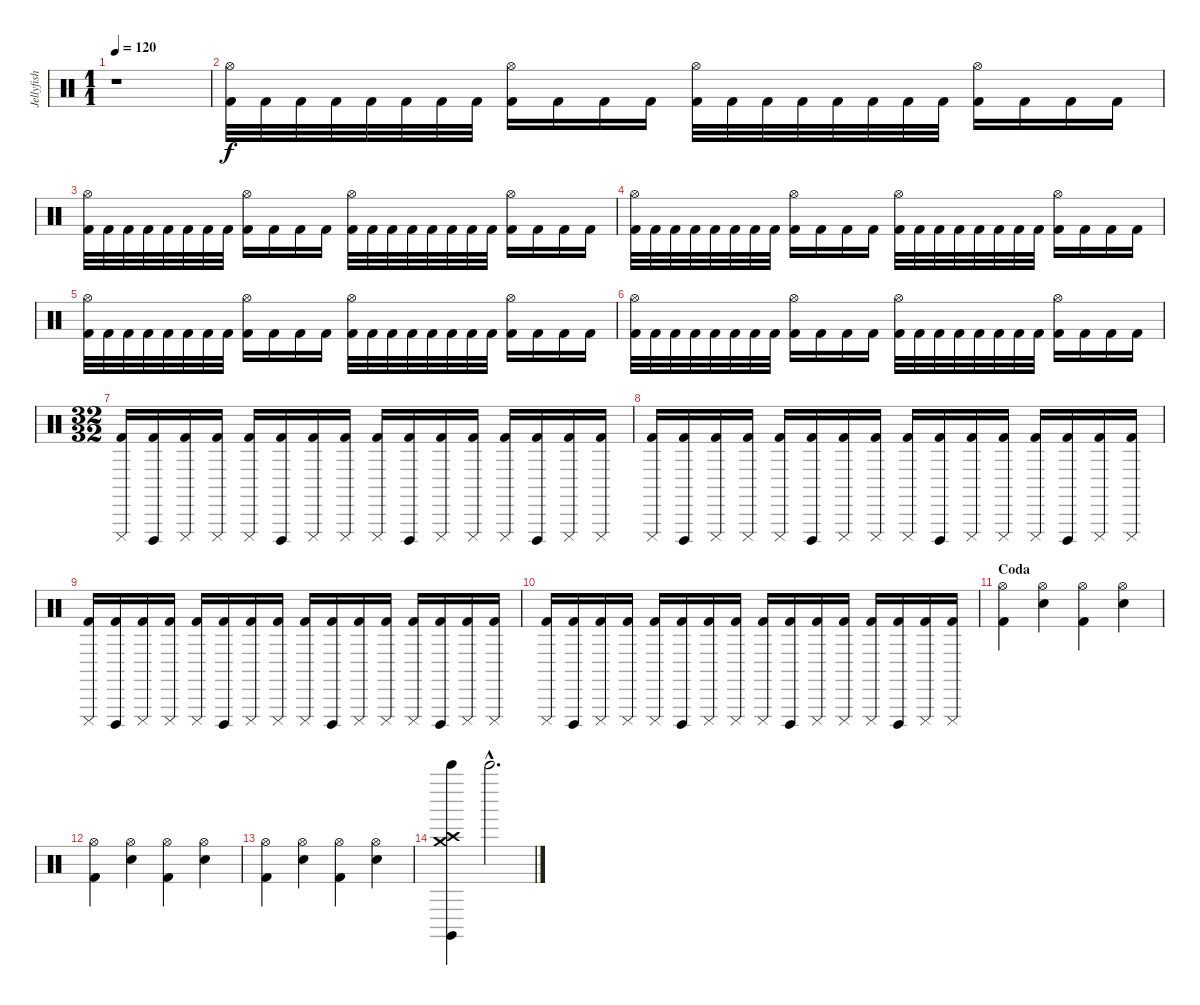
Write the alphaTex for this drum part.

\track ("Jellyfish" "Jellyfish") {instrument percussion}
\staff {score}
\articulation defaults
\ts (1 1)
\tempo 120
\clef neutral
\ks c
r.1{dy f} |
("Hi-Hat (open)" "Kick (hit) 2").32 "Kick (hit) 2".32 "Kick (hit) 2".32 "Kick (hit) 2".32 "Kick (hit) 2".32 "Kick (hit) 2".32 "Kick (hit) 2".32 "Kick (hit) 2".32 ("Hi-Hat (open)" "Kick (hit) 2").16 "Kick (hit) 2".16 "Kick (hit) 2".16 "Kick (hit) 2".16 ("Hi-Hat (open)" "Kick (hit) 2").32 "Kick (hit) 2".32 "Kick (hit) 2".32 "Kick (hit) 2".32 "Kick (hit) 2".32 "Kick (hit) 2".32 "Kick (hit) 2".32 "Kick (hit) 2".32 ("Hi-Hat (open)" "Kick (hit) 2").16 "Kick (hit) 2".16 "Kick (hit) 2".16 "Kick (hit) 2".16 |
("Hi-Hat (open)" "Kick (hit) 2").32 "Kick (hit) 2".32 "Kick (hit) 2".32 "Kick (hit) 2".32 "Kick (hit) 2".32 "Kick (hit) 2".32 "Kick (hit) 2".32 "Kick (hit) 2".32 ("Hi-Hat (open)" "Kick (hit) 2").16 "Kick (hit) 2".16 "Kick (hit) 2".16 "Kick (hit) 2".16 ("Hi-Hat (open)" "Kick (hit) 2").32 "Kick (hit) 2".32 "Kick (hit) 2".32 "Kick (hit) 2".32 "Kick (hit) 2".32 "Kick (hit) 2".32 "Kick (hit) 2".32 "Kick (hit) 2".32 ("Hi-Hat (open)" "Kick (hit) 2").16 "Kick (hit) 2".16 "Kick (hit) 2".16 "Kick (hit) 2".16 |
("Hi-Hat (open)" "Kick (hit) 2").32 "Kick (hit) 2".32 "Kick (hit) 2".32 "Kick (hit) 2".32 "Kick (hit) 2".32 "Kick (hit) 2".32 "Kick (hit) 2".32 "Kick (hit) 2".32 ("Hi-Hat (open)" "Kick (hit) 2").16 "Kick (hit) 2".16 "Kick (hit) 2".16 "Kick (hit) 2".16 ("Hi-Hat (open)" "Kick (hit) 2").32 "Kick (hit) 2".32 "Kick (hit) 2".32 "Kick (hit) 2".32 "Kick (hit) 2".32 "Kick (hit) 2".32 "Kick (hit) 2".32 "Kick (hit) 2".32 ("Hi-Hat (open)" "Kick (hit) 2").16 "Kick (hit) 2".16 "Kick (hit) 2".16 "Kick (hit) 2".16 |
("Hi-Hat (open)" "Kick (hit) 2").32 "Kick (hit) 2".32 "Kick (hit) 2".32 "Kick (hit) 2".32 "Kick (hit) 2".32 "Kick (hit) 2".32 "Kick (hit) 2".32 "Kick (hit) 2".32 ("Hi-Hat (open)" "Kick (hit) 2").16 "Kick (hit) 2".16 "Kick (hit) 2".16 "Kick (hit) 2".16 ("Hi-Hat (open)" "Kick (hit) 2").32 "Kick (hit) 2".32 "Kick (hit) 2".32 "Kick (hit) 2".32 "Kick (hit) 2".32 "Kick (hit) 2".32 "Kick (hit) 2".32 "Kick (hit) 2".32 ("Hi-Hat (open)" "Kick (hit) 2").16 "Kick (hit) 2".16 "Kick (hit) 2".16 "Kick (hit) 2".16 |
("Hi-Hat (open)" "Kick (hit) 2").32 "Kick (hit) 2".32 "Kick (hit) 2".32 "Kick (hit) 2".32 "Kick (hit) 2".32 "Kick (hit) 2".32 "Kick (hit) 2".32 "Kick (hit) 2".32 ("Hi-Hat (open)" "Kick (hit) 2").16 "Kick (hit) 2".16 "Kick (hit) 2".16 "Kick (hit) 2".16 ("Hi-Hat (open)" "Kick (hit) 2").32 "Kick (hit) 2".32 "Kick (hit) 2".32 "Kick (hit) 2".32 "Kick (hit) 2".32 "Kick (hit) 2".32 "Kick (hit) 2".32 "Kick (hit) 2".32 ("Hi-Hat (open)" "Kick (hit) 2").16 "Kick (hit) 2".16 "Kick (hit) 2".16 "Kick (hit) 2".16 |
\ts (32 32)
("Cuica (mute)" "Kick (hit) 2").16 ("Cuica (open)" "Kick (hit) 2").16 ("Cuica (mute)" "Kick (hit) 2").16 ("Cuica (mute)" "Kick (hit) 2").16 ("Cuica (mute)" "Kick (hit) 2").16 ("Cuica (open)" "Kick (hit) 2").16 ("Cuica (mute)" "Kick (hit) 2").16 ("Cuica (mute)" "Kick (hit) 2").16 ("Cuica (mute)" "Kick (hit) 2").16 ("Cuica (open)" "Kick (hit) 2").16 ("Cuica (mute)" "Kick (hit) 2").16 ("Cuica (mute)" "Kick (hit) 2").16 ("Cuica (mute)" "Kick (hit) 2").16 ("Cuica (open)" "Kick (hit) 2").16 ("Cuica (mute)" "Kick (hit) 2").16 ("Cuica (mute)"{be (custom 0 0 12 9 26 5 30 12 35 6 48 5 50 4 60 12)} "Kick (hit) 2").16 |
("Cuica (mute)" "Kick (hit) 2").16 ("Cuica (open)" "Kick (hit) 2").16 ("Cuica (mute)" "Kick (hit) 2").16 ("Cuica (mute)" "Kick (hit) 2").16 ("Cuica (mute)" "Kick (hit) 2").16 ("Cuica (open)" "Kick (hit) 2").16 ("Cuica (mute)" "Kick (hit) 2").16 ("Cuica (mute)" "Kick (hit) 2").16 ("Cuica (mute)" "Kick (hit) 2").16 ("Cuica (open)" "Kick (hit) 2").16 ("Cuica (mute)" "Kick (hit) 2").16 ("Cuica (mute)" "Kick (hit) 2").16 ("Cuica (mute)" "Kick (hit) 2").16 ("Cuica (open)" "Kick (hit) 2").16 ("Cuica (mute)" "Kick (hit) 2").16 ("Cuica (mute)"{be (custom 0 0 12 9 26 5 30 12 35 6 48 5 50 4 60 12)} "Kick (hit) 2").16 |
("Cuica (mute)" "Kick (hit) 2").16 ("Cuica (open)" "Kick (hit) 2").16 ("Cuica (mute)" "Kick (hit) 2").16 ("Cuica (mute)" "Kick (hit) 2").16 ("Cuica (mute)" "Kick (hit) 2").16 ("Cuica (open)" "Kick (hit) 2").16 ("Cuica (mute)" "Kick (hit) 2").16 ("Cuica (mute)" "Kick (hit) 2").16 ("Cuica (mute)" "Kick (hit) 2").16 ("Cuica (open)" "Kick (hit) 2").16 ("Cuica (mute)" "Kick (hit) 2").16 ("Cuica (mute)" "Kick (hit) 2").16 ("Cuica (mute)" "Kick (hit) 2").16 ("Cuica (open)" "Kick (hit) 2").16 ("Cuica (mute)" "Kick (hit) 2").16 ("Cuica (mute)"{be (custom 0 0 12 9 26 5 30 12 35 6 48 5 50 4 60 12)} "Kick (hit) 2").16 |
("Cuica (mute)" "Kick (hit) 2").16 ("Cuica (open)" "Kick (hit) 2").16 ("Cuica (mute)" "Kick (hit) 2").16 ("Cuica (mute)" "Kick (hit) 2").16 ("Cuica (mute)" "Kick (hit) 2").16 ("Cuica (open)" "Kick (hit) 2").16 ("Cuica (mute)" "Kick (hit) 2").16 ("Cuica (mute)" "Kick (hit) 2").16 ("Cuica (mute)" "Kick (hit) 2").16 ("Cuica (open)" "Kick (hit) 2").16 ("Cuica (mute)" "Kick (hit) 2").16 ("Cuica (mute)" "Kick (hit) 2").16 ("Cuica (mute)" "Kick (hit) 2").16 ("Cuica (open)" "Kick (hit) 2").16 ("Cuica (mute)" "Kick (hit) 2").16 ("Cuica (mute)"{be (custom 0 0 12 9 26 5 30 12 35 6 48 5 50 4 60 12)} "Kick (hit) 2").16 |
\section ("" "Coda")
("Hi-Hat (open)" "Kick (hit) 2").4 ("Hi-Hat (open)" "Snare (hit) 2").4 ("Hi-Hat (open)" "Kick (hit) 2").4 ("Hi-Hat (open)" "Snare (hit) 2").4 |
("Hi-Hat (open)" "Kick (hit) 2").4 ("Hi-Hat (open)" "Snare (hit) 2").4 ("Hi-Hat (open)" "Kick (hit) 2").4 ("Hi-Hat (open)" "Snare (hit) 2").4 |
("Hi-Hat (open)" "Kick (hit) 2").4 ("Hi-Hat (open)" "Snare (hit) 2").4 ("Hi-Hat (open)" "Kick (hit) 2").4 ("Hi-Hat (open)" "Snare (hit) 2").4 |
("Crash medium (hit)" "Crash high (hit)" "Claves (hit)" "Bell Tree (hit)").4 "Bell Tree (hit)"{hac}.2{d}
